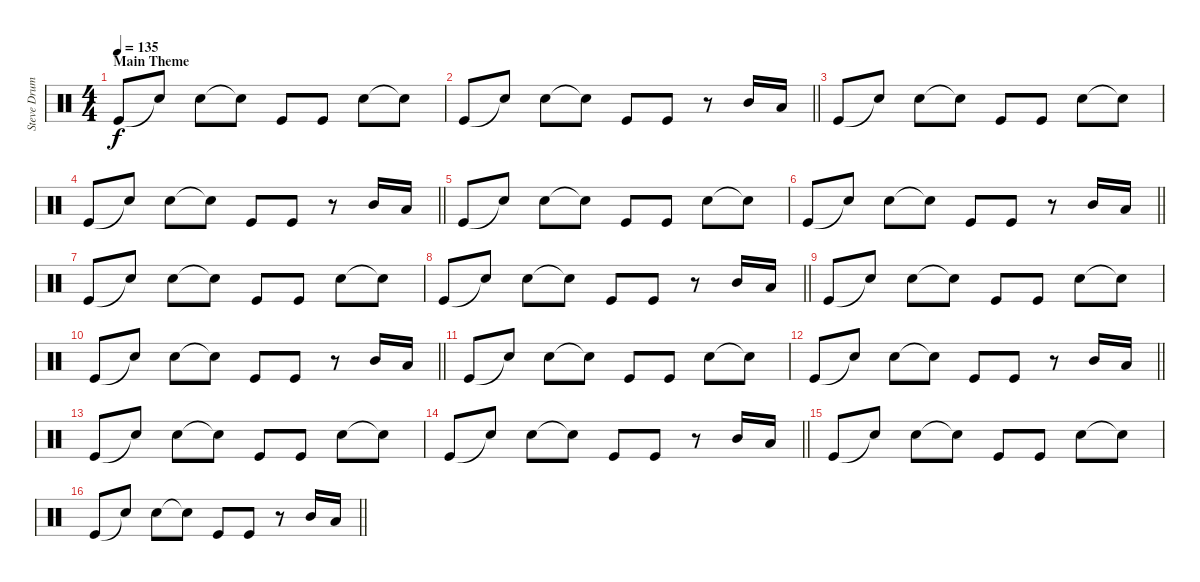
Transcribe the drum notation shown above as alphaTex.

\track ("Steve Drums" "Steve Drum") {instrument percussion}
\staff {score}
\articulation defaults
\ts (4 4)
\section ("" "Main Theme")
\tempo 135
\clef neutral
\ks c "Kick (hit)".8{dy f} "Snare (hit)"{t}.8 "Snare (hit) 2".8 "Snare (hit)"{t}.8 "Kick (hit)".8 "Kick (hit)".8 "Snare (hit) 2".8 "Snare (hit)"{t}.8
|
\barLineRight lightlight "Kick (hit)".8 "Snare (hit)"{t}.8 "Snare (hit) 2".8 "Snare (hit)"{t}.8 "Kick (hit)".8 "Kick (hit)".8
r.8 "Mid Tom (hit)".16 "Low Tom (hit)".16 |
"Kick (hit)".8 "Snare (hit)"{t}.8 "Snare (hit) 2".8 "Snare (hit)"{t}.8 "Kick (hit)".8 "Kick (hit)".8 "Snare (hit) 2".8 "Snare (hit)"{t}.8 |
\barLineRight lightlight "Kick (hit)".8 "Snare (hit)"{t}.8 "Snare (hit) 2".8 "Snare (hit)"{t}.8 "Kick (hit)".8 "Kick (hit)".8
r.8 "Mid Tom (hit)".16 "Low Tom (hit)".16 |
"Kick (hit)".8 "Snare (hit)"{t}.8 "Snare (hit) 2".8 "Snare (hit)"{t}.8 "Kick (hit)".8 "Kick (hit)".8 "Snare (hit) 2".8 "Snare (hit)"{t}.8 |
\barLineRight lightlight "Kick (hit)".8 "Snare (hit)"{t}.8 "Snare (hit) 2".8 "Snare (hit)"{t}.8 "Kick (hit)".8 "Kick (hit)".8
r.8 "Mid Tom (hit)".16 "Low Tom (hit)".16 |
"Kick (hit)".8 "Snare (hit)"{t}.8 "Snare (hit) 2".8 "Snare (hit)"{t}.8 "Kick (hit)".8 "Kick (hit)".8 "Snare (hit) 2".8 "Snare (hit)"{t}.8 |
\barLineRight lightlight "Kick (hit)".8 "Snare (hit)"{t}.8 "Snare (hit) 2".8 "Snare (hit)"{t}.8 "Kick (hit)".8 "Kick (hit)".8
r.8 "Mid Tom (hit)".16 "Low Tom (hit)".16 |
"Kick (hit)".8 "Snare (hit)"{t}.8 "Snare (hit) 2".8 "Snare (hit)"{t}.8 "Kick (hit)".8 "Kick (hit)".8 "Snare (hit) 2".8 "Snare (hit)"{t}.8 |
\barLineRight lightlight "Kick (hit)".8 "Snare (hit)"{t}.8 "Snare (hit) 2".8 "Snare (hit)"{t}.8 "Kick (hit)".8 "Kick (hit)".8
r.8 "Mid Tom (hit)".16 "Low Tom (hit)".16 |
"Kick (hit)".8 "Snare (hit)"{t}.8 "Snare (hit) 2".8 "Snare (hit)"{t}.8 "Kick (hit)".8 "Kick (hit)".8 "Snare (hit) 2".8 "Snare (hit)"{t}.8 |
\barLineRight lightlight "Kick (hit)".8 "Snare (hit)"{t}.8 "Snare (hit) 2".8 "Snare (hit)"{t}.8 "Kick (hit)".8 "Kick (hit)".8
r.8 "Mid Tom (hit)".16 "Low Tom (hit)".16 |
"Kick (hit)".8 "Snare (hit)"{t}.8 "Snare (hit) 2".8 "Snare (hit)"{t}.8 "Kick (hit)".8 "Kick (hit)".8 "Snare (hit) 2".8 "Snare (hit)"{t}.8 |
\barLineRight lightlight "Kick (hit)".8 "Snare (hit)"{t}.8 "Snare (hit) 2".8 "Snare (hit)"{t}.8 "Kick (hit)".8 "Kick (hit)".8
r.8 "Mid Tom (hit)".16 "Low Tom (hit)".16 |
"Kick (hit)".8 "Snare (hit)"{t}.8 "Snare (hit) 2".8 "Snare (hit)"{t}.8 "Kick (hit)".8 "Kick (hit)".8 "Snare (hit) 2".8 "Snare (hit)"{t}.8 |
\barLineRight lightlight "Kick (hit)".8 "Snare (hit)"{t}.8 "Snare (hit) 2".8 "Snare (hit)"{t}.8 "Kick (hit)".8 "Kick (hit)".8
r.8 "Mid Tom (hit)".16 "Low Tom (hit)".16
